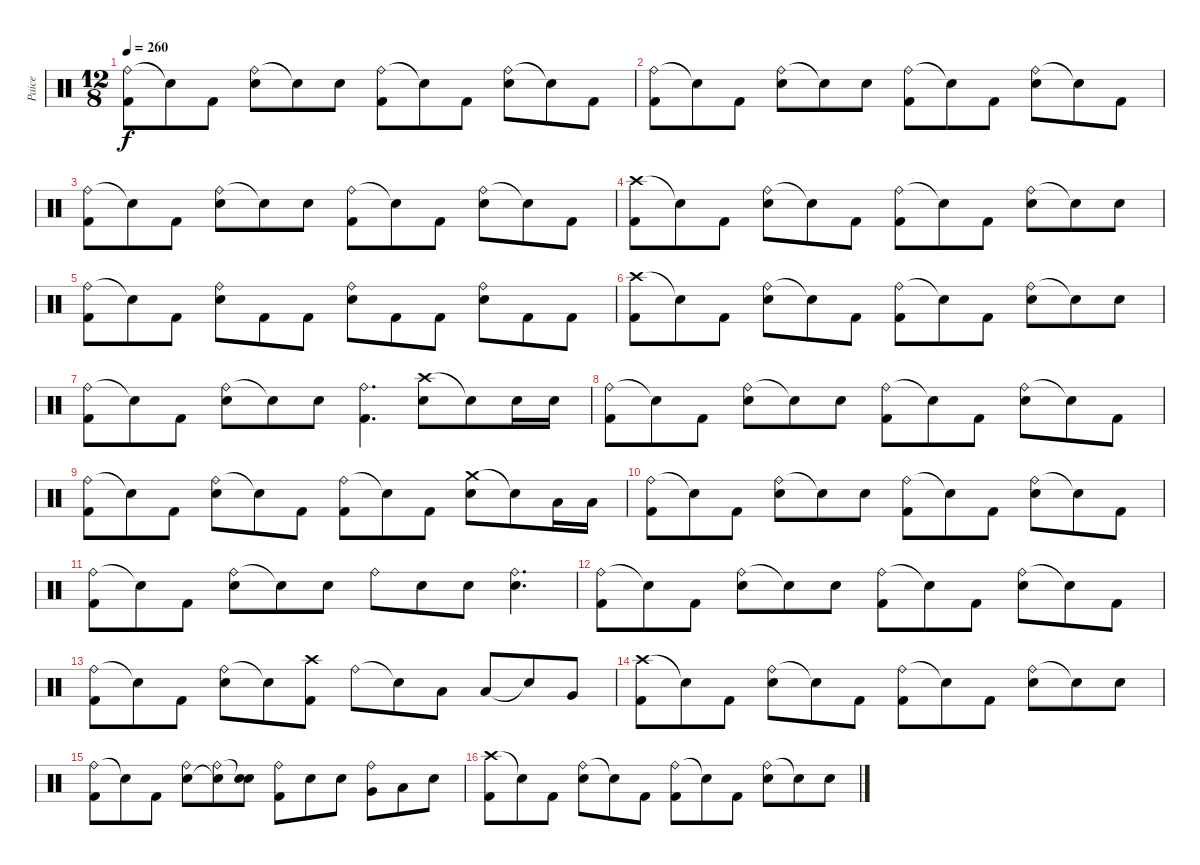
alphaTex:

\track ("Paice" "Paice") {instrument percussion}
\staff {score}
\articulation defaults
\ts (12 8)
\tempo 260
\clef neutral
\ks c
("Ride (bell)" "Kick (hit) 2").8{dy f} "Snare (hit)"{t}.8 "Kick (hit) 2".8 ("Ride (bell)" "Electric Snare (hit)").8 "Snare (hit)"{t}.8 "Electric Snare (hit)".8 ("Ride (bell)" "Kick (hit) 2").8 "Snare (hit)"{t}.8 "Kick (hit) 2".8 ("Ride (bell)" "Electric Snare (hit)").8 "Snare (hit)"{t}.8 "Kick (hit) 2".8 |
("Ride (bell)" "Kick (hit) 2").8 "Snare (hit)"{t}.8 "Kick (hit) 2".8 ("Ride (bell)" "Electric Snare (hit)").8 "Snare (hit)"{t}.8 "Electric Snare (hit)".8 ("Ride (bell)" "Kick (hit) 2").8 "Snare (hit)"{t}.8 "Kick (hit) 2".8 ("Ride (bell)" "Electric Snare (hit)").8 "Snare (hit)"{t}.8 "Kick (hit) 2".8 |
("Ride (bell)" "Kick (hit) 2").8 "Snare (hit)"{t}.8 "Kick (hit) 2".8 ("Ride (bell)" "Electric Snare (hit)").8 "Snare (hit)"{t}.8 "Electric Snare (hit)".8 ("Ride (bell)" "Kick (hit) 2").8 "Snare (hit)"{t}.8 "Kick (hit) 2".8 ("Ride (bell)" "Electric Snare (hit)").8 "Snare (hit)"{t}.8 "Kick (hit) 2".8 |
("Crash high (hit)" "Kick (hit) 2").8 "Snare (hit)"{t}.8 "Kick (hit) 2".8 ("Ride (bell)" "Electric Snare (hit)").8 "Snare (hit)"{t}.8 "Kick (hit) 2".8 ("Ride (bell)" "Kick (hit) 2").8 "Snare (hit)"{t}.8 "Kick (hit) 2".8 ("Ride (bell)" "Electric Snare (hit)").8 "Snare (hit)"{t}.8 "Electric Snare (hit)".8 |
("Ride (bell)" "Kick (hit) 2").8 "Snare (hit)"{t}.8 "Kick (hit) 2".8 ("Ride (bell)" "Electric Snare (hit)").8 "Kick (hit) 2".8 "Kick (hit) 2".8 ("Ride (bell)" "Electric Snare (hit)").8 "Kick (hit) 2".8 "Kick (hit) 2".8 ("Ride (bell)" "Electric Snare (hit)").8 "Kick (hit) 2".8 "Kick (hit) 2".8 |
("Crash high (hit)" "Kick (hit) 2").8 "Snare (hit)"{t}.8 "Kick (hit) 2".8 ("Ride (bell)" "Electric Snare (hit)").8 "Snare (hit)"{t}.8 "Kick (hit) 2".8 ("Ride (bell)" "Kick (hit) 2").8 "Snare (hit)"{t}.8 "Kick (hit) 2".8 ("Ride (bell)" "Electric Snare (hit)").8 "Snare (hit)"{t}.8 "Electric Snare (hit)".8 |
("Ride (bell)" "Kick (hit) 2").8 "Snare (hit)"{t}.8 "Kick (hit) 2".8 ("Ride (bell)" "Electric Snare (hit)").8 "Snare (hit)"{t}.8 "Electric Snare (hit)".8 ("Ride (bell)" "Kick (hit) 2").4{d} ("Crash high (hit)" "Electric Snare (hit)").8 "Snare (hit)"{t}.8 "Electric Snare (hit)".16 "Electric Snare (hit)".16 |
("Ride (bell)" "Kick (hit) 2").8 "Snare (hit)"{t}.8 "Kick (hit) 2".8 ("Ride (bell)" "Electric Snare (hit)").8 "Snare (hit)"{t}.8 "Electric Snare (hit)".8 ("Ride (bell)" "Kick (hit) 2").8 "Snare (hit)"{t}.8 "Kick (hit) 2".8 ("Ride (bell)" "Electric Snare (hit)").8 "Snare (hit)"{t}.8 "Kick (hit) 2".8 |
("Ride (bell)" "Kick (hit) 2").8 "Snare (hit)"{t}.8 "Kick (hit) 2".8 ("Ride (bell)" "Electric Snare (hit)").8 "Snare (hit)"{t}.8 "Kick (hit) 2".8 ("Ride (bell)" "Kick (hit) 2").8 "Snare (hit)"{t}.8 "Kick (hit) 2".8 ("Crash medium (hit)" "Electric Snare (hit)").8 "Snare (hit)"{t}.8 "Low Tom (hit)".16 "Low Tom (hit)".16 |
("Ride (bell)" "Kick (hit) 2").8 "Snare (hit)"{t}.8 "Kick (hit) 2".8 ("Ride (bell)" "Electric Snare (hit)").8 "Snare (hit)"{t}.8 "Electric Snare (hit)".8 ("Ride (bell)" "Kick (hit) 2").8 "Snare (hit)"{t}.8 "Kick (hit) 2".8 ("Ride (bell)" "Electric Snare (hit)").8 "Snare (hit)"{t}.8 "Kick (hit) 2".8 |
("Ride (bell)" "Kick (hit) 2").8 "Snare (hit)"{t}.8 "Kick (hit) 2".8 ("Ride (bell)" "Electric Snare (hit)").8 "Snare (hit)"{t}.8 "Electric Snare (hit)".8 "Ride (bell)".8 "Electric Snare (hit)".8 "Electric Snare (hit)".8 ("Ride (bell)" "Electric Snare (hit)").4{d} |
("Ride (bell)" "Kick (hit) 2").8 "Snare (hit)"{t}.8 "Kick (hit) 2".8 ("Ride (bell)" "Electric Snare (hit)").8 "Snare (hit)"{t}.8 "Electric Snare (hit)".8 ("Ride (bell)" "Kick (hit) 2").8 "Snare (hit)"{t}.8 "Kick (hit) 2".8 ("Ride (bell)" "Electric Snare (hit)").8 "Snare (hit)"{t}.8 "Kick (hit) 2".8 |
("Ride (bell)" "Kick (hit) 2").8 "Snare (hit)"{t}.8 "Kick (hit) 2".8 ("Ride (bell)" "Electric Snare (hit)").8 "Snare (hit)"{t}.8 ("Crash high (hit)" "Kick (hit) 2").8 "Ride (bell)".8 "Snare (hit)"{t}.8 "Low Tom (hit)".8 "Low Tom (hit)".8 "Snare (hit)"{t}.8 "Very Low Tom (hit)".8 |
("Crash high (hit)" "Kick (hit) 2").8 "Snare (hit)"{t}.8 "Kick (hit) 2".8 ("Ride (bell)" "Electric Snare (hit)").8 "Snare (hit)"{t}.8 "Kick (hit) 2".8 ("Ride (bell)" "Kick (hit) 2").8 "Snare (hit)"{t}.8 "Kick (hit) 2".8 ("Ride (bell)" "Electric Snare (hit)").8 "Snare (hit)"{t}.8 "Electric Snare (hit)".8 |
("Ride (bell)" "Kick (hit) 2").8 "Snare (hit)"{t}.8 "Kick (hit) 2".8 ("Ride (bell)" "Electric Snare (hit)").8 ("Ride (bell)" "Snare (hit)"{t}).8 ("Snare (hit)"{t} "Electric Snare (hit)").8 ("Ride (bell)" "Kick (hit) 2").8 "Electric Snare (hit)".8 "Electric Snare (hit)".8 ("Ride (bell)" "Very Low Tom (hit)").8 "Low Tom (hit)".8 "Electric Snare (hit)".8 |
("Crash high (hit)" "Kick (hit) 2").8 "Snare (hit)"{t}.8 "Kick (hit) 2".8 ("Ride (bell)" "Electric Snare (hit)").8 "Snare (hit)"{t}.8 "Kick (hit) 2".8 ("Ride (bell)" "Kick (hit) 2").8 "Snare (hit)"{t}.8 "Kick (hit) 2".8 ("Ride (bell)" "Electric Snare (hit)").8 "Snare (hit)"{t}.8 "Electric Snare (hit)".8
